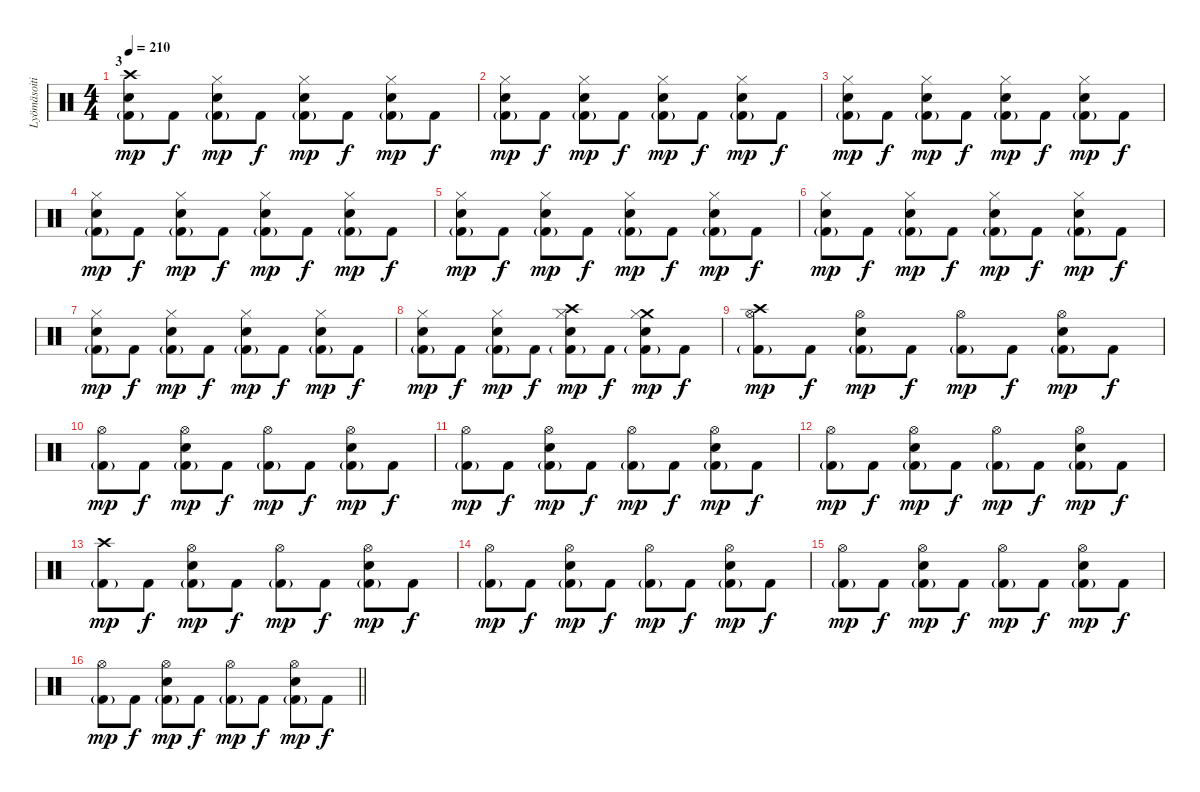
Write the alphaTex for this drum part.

\track ("Lyömäsoitin" "Lyömäsoiti") {instrument percussion}
\staff {score}
\articulation defaults
\ts (4 4)
\section ("" "3")
\tempo 210
\clef neutral
\ks c
("Crash high (hit)" "Snare (hit) 2" "Kick (hit) 2"{g}).8{dy mp} "Kick (hit) 2".8{dy f} ("Hi-Hat (closed)" "Snare (hit) 2" "Kick (hit) 2"{g}).8{dy mp} "Kick (hit) 2".8{dy f} ("Hi-Hat (closed)" "Snare (hit) 2" "Kick (hit) 2"{g}).8{dy mp} "Kick (hit) 2".8{dy f} ("Hi-Hat (closed)" "Snare (hit) 2" "Kick (hit) 2"{g}).8{dy mp} "Kick (hit) 2".8{dy f} |
("Hi-Hat (closed)" "Snare (hit) 2" "Kick (hit) 2"{g}).8{dy mp} "Kick (hit) 2".8{dy f} ("Hi-Hat (closed)" "Snare (hit) 2" "Kick (hit) 2"{g}).8{dy mp} "Kick (hit) 2".8{dy f} ("Hi-Hat (closed)" "Snare (hit) 2" "Kick (hit) 2"{g}).8{dy mp} "Kick (hit) 2".8{dy f} ("Hi-Hat (closed)" "Snare (hit) 2" "Kick (hit) 2"{g}).8{dy mp} "Kick (hit) 2".8{dy f} |
("Hi-Hat (closed)" "Snare (hit) 2" "Kick (hit) 2"{g}).8{dy mp} "Kick (hit) 2".8{dy f} ("Hi-Hat (closed)" "Snare (hit) 2" "Kick (hit) 2"{g}).8{dy mp} "Kick (hit) 2".8{dy f} ("Hi-Hat (closed)" "Snare (hit) 2" "Kick (hit) 2"{g}).8{dy mp} "Kick (hit) 2".8{dy f} ("Hi-Hat (closed)" "Snare (hit) 2" "Kick (hit) 2"{g}).8{dy mp} "Kick (hit) 2".8{dy f} |
("Hi-Hat (closed)" "Snare (hit) 2" "Kick (hit) 2"{g}).8{dy mp} "Kick (hit) 2".8{dy f} ("Hi-Hat (closed)" "Snare (hit) 2" "Kick (hit) 2"{g}).8{dy mp} "Kick (hit) 2".8{dy f} ("Hi-Hat (closed)" "Snare (hit) 2" "Kick (hit) 2"{g}).8{dy mp} "Kick (hit) 2".8{dy f} ("Hi-Hat (closed)" "Snare (hit) 2" "Kick (hit) 2"{g}).8{dy mp} "Kick (hit) 2".8{dy f} |
("Hi-Hat (closed)" "Snare (hit) 2" "Kick (hit) 2"{g}).8{dy mp} "Kick (hit) 2".8{dy f} ("Hi-Hat (closed)" "Snare (hit) 2" "Kick (hit) 2"{g}).8{dy mp} "Kick (hit) 2".8{dy f} ("Hi-Hat (closed)" "Snare (hit) 2" "Kick (hit) 2"{g}).8{dy mp} "Kick (hit) 2".8{dy f} ("Hi-Hat (closed)" "Snare (hit) 2" "Kick (hit) 2"{g}).8{dy mp} "Kick (hit) 2".8{dy f} |
("Hi-Hat (closed)" "Snare (hit) 2" "Kick (hit) 2"{g}).8{dy mp} "Kick (hit) 2".8{dy f} ("Hi-Hat (closed)" "Snare (hit) 2" "Kick (hit) 2"{g}).8{dy mp} "Kick (hit) 2".8{dy f} ("Hi-Hat (closed)" "Snare (hit) 2" "Kick (hit) 2"{g}).8{dy mp} "Kick (hit) 2".8{dy f} ("Hi-Hat (closed)" "Snare (hit) 2" "Kick (hit) 2"{g}).8{dy mp} "Kick (hit) 2".8{dy f} |
("Hi-Hat (closed)" "Snare (hit) 2" "Kick (hit) 2"{g}).8{dy mp} "Kick (hit) 2".8{dy f} ("Hi-Hat (closed)" "Snare (hit) 2" "Kick (hit) 2"{g}).8{dy mp} "Kick (hit) 2".8{dy f} ("Hi-Hat (closed)" "Snare (hit) 2" "Kick (hit) 2"{g}).8{dy mp} "Kick (hit) 2".8{dy f} ("Hi-Hat (closed)" "Snare (hit) 2" "Kick (hit) 2"{g}).8{dy mp} "Kick (hit) 2".8{dy f} |
("Hi-Hat (closed)" "Snare (hit) 2" "Kick (hit) 2"{g}).8{dy mp} "Kick (hit) 2".8{dy f} ("Hi-Hat (closed)" "Snare (hit) 2" "Kick (hit) 2"{g}).8{dy mp} "Kick (hit) 2".8{dy f} ("Crash high (hit)" "Hi-Hat (closed)" "Snare (hit) 2" "Kick (hit) 2"{g}).8{dy mp} "Kick (hit) 2".8{dy f} ("Crash medium (hit)" "Hi-Hat (closed)" "Snare (hit) 2" "Kick (hit) 2"{g}).8{dy mp} "Kick (hit) 2".8{dy f} |
("Crash high (hit)" "Hi-Hat (open)" "Kick (hit) 2"{g}).8{dy mp} "Kick (hit) 2".8{dy f} ("Hi-Hat (open)" "Snare (hit) 2" "Kick (hit) 2"{g}).8{dy mp} "Kick (hit) 2".8{dy f} ("Hi-Hat (open)" "Kick (hit) 2"{g}).8{dy mp} "Kick (hit) 2".8{dy f} ("Hi-Hat (open)" "Snare (hit) 2" "Kick (hit) 2"{g}).8{dy mp} "Kick (hit) 2".8{dy f} |
("Hi-Hat (open)" "Kick (hit) 2"{g}).8{dy mp} "Kick (hit) 2".8{dy f} ("Hi-Hat (open)" "Snare (hit) 2" "Kick (hit) 2"{g}).8{dy mp} "Kick (hit) 2".8{dy f} ("Hi-Hat (open)" "Kick (hit) 2"{g}).8{dy mp} "Kick (hit) 2".8{dy f} ("Hi-Hat (open)" "Snare (hit) 2" "Kick (hit) 2"{g}).8{dy mp} "Kick (hit) 2".8{dy f} |
("Hi-Hat (open)" "Kick (hit) 2"{g}).8{dy mp} "Kick (hit) 2".8{dy f} ("Hi-Hat (open)" "Snare (hit) 2" "Kick (hit) 2"{g}).8{dy mp} "Kick (hit) 2".8{dy f} ("Hi-Hat (open)" "Kick (hit) 2"{g}).8{dy mp} "Kick (hit) 2".8{dy f} ("Hi-Hat (open)" "Snare (hit) 2" "Kick (hit) 2"{g}).8{dy mp} "Kick (hit) 2".8{dy f} |
("Hi-Hat (open)" "Kick (hit) 2"{g}).8{dy mp} "Kick (hit) 2".8{dy f} ("Hi-Hat (open)" "Snare (hit) 2" "Kick (hit) 2"{g}).8{dy mp} "Kick (hit) 2".8{dy f} ("Hi-Hat (open)" "Kick (hit) 2"{g}).8{dy mp} "Kick (hit) 2".8{dy f} ("Hi-Hat (open)" "Snare (hit) 2" "Kick (hit) 2"{g}).8{dy mp} "Kick (hit) 2".8{dy f} |
("Crash high (hit)" "Kick (hit) 2"{g}).8{dy mp} "Kick (hit) 2".8{dy f} ("Hi-Hat (open)" "Snare (hit) 2" "Kick (hit) 2"{g}).8{dy mp} "Kick (hit) 2".8{dy f} ("Hi-Hat (open)" "Kick (hit) 2"{g}).8{dy mp} "Kick (hit) 2".8{dy f} ("Hi-Hat (open)" "Snare (hit) 2" "Kick (hit) 2"{g}).8{dy mp} "Kick (hit) 2".8{dy f} |
("Hi-Hat (open)" "Kick (hit) 2"{g}).8{dy mp} "Kick (hit) 2".8{dy f} ("Hi-Hat (open)" "Snare (hit) 2" "Kick (hit) 2"{g}).8{dy mp} "Kick (hit) 2".8{dy f} ("Hi-Hat (open)" "Kick (hit) 2"{g}).8{dy mp} "Kick (hit) 2".8{dy f} ("Hi-Hat (open)" "Snare (hit) 2" "Kick (hit) 2"{g}).8{dy mp} "Kick (hit) 2".8{dy f} |
("Hi-Hat (open)" "Kick (hit) 2"{g}).8{dy mp} "Kick (hit) 2".8{dy f} ("Hi-Hat (open)" "Snare (hit) 2" "Kick (hit) 2"{g}).8{dy mp} "Kick (hit) 2".8{dy f} ("Hi-Hat (open)" "Kick (hit) 2"{g}).8{dy mp} "Kick (hit) 2".8{dy f} ("Hi-Hat (open)" "Snare (hit) 2" "Kick (hit) 2"{g}).8{dy mp} "Kick (hit) 2".8{dy f} |
\barLineRight lightlight
("Hi-Hat (open)" "Kick (hit) 2"{g}).8{dy mp} "Kick (hit) 2".8{dy f} ("Hi-Hat (open)" "Snare (hit) 2" "Kick (hit) 2"{g}).8{dy mp} "Kick (hit) 2".8{dy f} ("Hi-Hat (open)" "Kick (hit) 2"{g}).8{dy mp} "Kick (hit) 2".8{dy f} ("Hi-Hat (open)" "Snare (hit) 2" "Kick (hit) 2"{g}).8{dy mp} "Kick (hit) 2".8{dy f}
